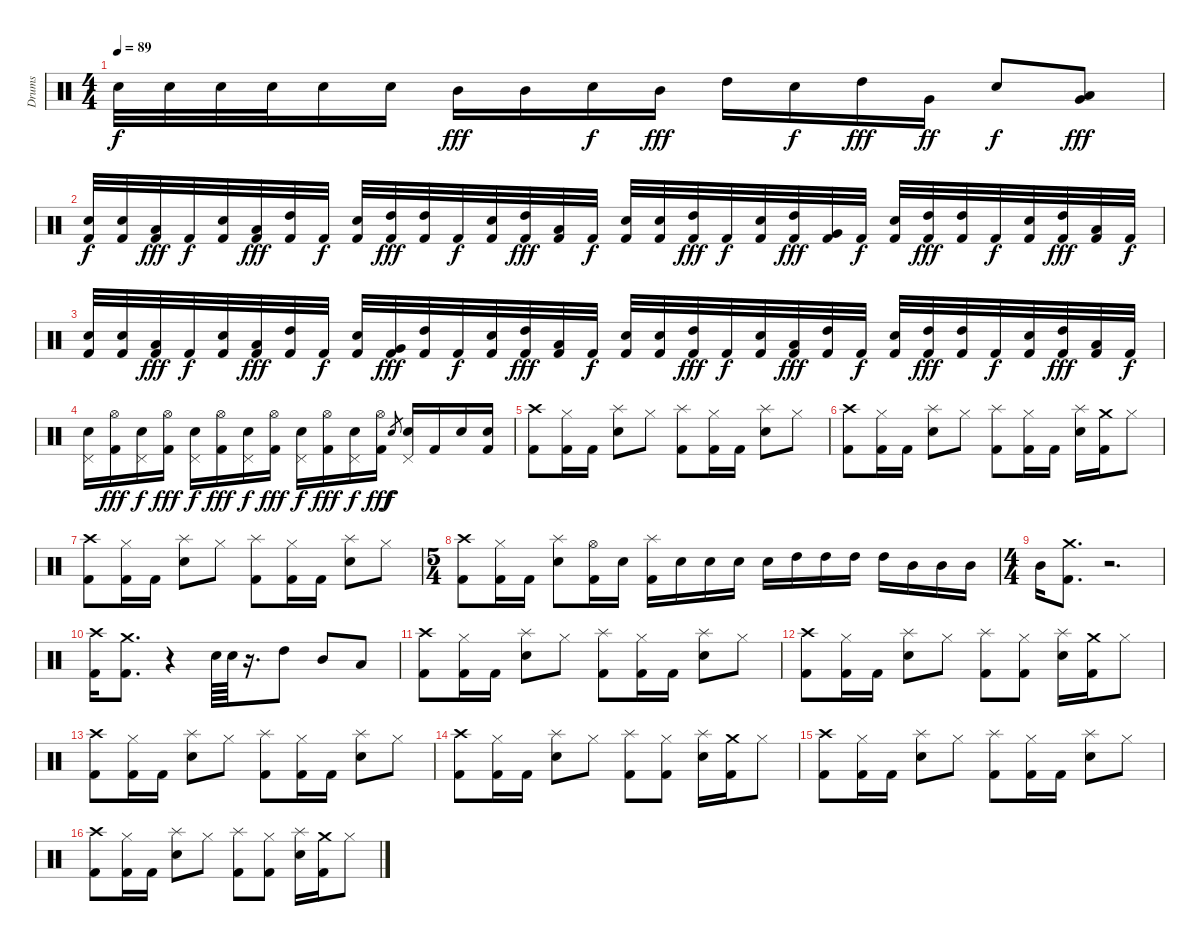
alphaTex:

\track ("Drums" "Drums") {instrument percussion}
\staff {score}
\articulation defaults
\ts (4 4)
\tempo 89
\clef neutral
\ks c "Snare (hit) 2".32{dy f} "Snare (hit) 2".32 "Snare (hit) 2".32 "Snare (hit) 2".32 "Snare (hit) 2".16 "Snare (hit) 2".16 "Mid Tom (hit)".16{dy fff} "Mid Tom (hit)".16 "Snare (hit) 2".16{dy f} "Mid Tom (hit)".16{dy fff} "High Tom (hit)".16 "Snare (hit) 2".16{dy f} "High Tom (hit)".16{dy fff} "Very Low Tom (hit)".16{dy ff} "Snare (hit) 2".8{dy f}
("Low Tom (hit)" "Very Low Tom (hit)").8{dy fff} |
("Kick (hit) 2" "Snare (hit) 2").32{dy f} ("Kick (hit) 2" "Snare (hit) 2").32 ("Kick (hit) 2" "Low Tom (hit)").32{dy fff} "Kick (hit) 2".32{dy f} ("Kick (hit) 2" "Snare (hit) 2").32 ("Kick (hit) 2" "Low Tom (hit)").32{dy fff} ("Kick (hit) 2" "High Tom (hit)").32 "Kick (hit) 2".32{dy f} ("Kick (hit) 2" "Snare (hit) 2").32 ("Kick (hit) 2" "High Tom (hit)").32{dy fff} ("Kick (hit) 2" "High Tom (hit)").32 "Kick (hit) 2".32{dy f} ("Kick (hit) 2" "Snare (hit) 2").32 ("Kick (hit) 2" "High Tom (hit)").32{dy fff} ("Kick (hit) 2" "Low Tom (hit)").32 "Kick (hit) 2".32{dy f} ("Kick (hit) 2" "Snare (hit) 2").32 ("Kick (hit) 2" "Snare (hit) 2").32 ("Kick (hit) 2" "High Tom (hit)").32{dy fff} "Kick (hit) 2".32{dy f} ("Kick (hit) 2" "Snare (hit) 2").32 ("Kick (hit) 2" "High Tom (hit)").32{dy fff} ("Kick (hit) 2" "Very Low Tom (hit)").32 "Kick (hit) 2".32{dy f} ("Kick (hit) 2" "Snare (hit) 2").32 ("Kick (hit) 2" "High Tom (hit)").32{dy fff} ("Kick (hit) 2" "High Tom (hit)").32 "Kick (hit) 2".32{dy f} ("Kick (hit) 2" "Snare (hit) 2").32 ("Kick (hit) 2" "High Tom (hit)").32{dy fff} ("Kick (hit) 2" "Low Tom (hit)").32 "Kick (hit) 2".32{dy f} |
("Kick (hit) 2" "Snare (hit) 2").32 ("Kick (hit) 2" "Snare (hit) 2").32 ("Kick (hit) 2" "Low Tom (hit)").32{dy fff} "Kick (hit) 2".32{dy f} ("Kick (hit) 2" "Snare (hit) 2").32 ("Kick (hit) 2" "Low Tom (hit)").32{dy fff} ("Kick (hit) 2" "High Tom (hit)").32 "Kick (hit) 2".32{dy f} ("Kick (hit) 2" "Snare (hit) 2").32 ("Kick (hit) 2" "Very Low Tom (hit)").32{dy fff} ("Kick (hit) 2" "High Tom (hit)").32 "Kick (hit) 2".32{dy f} ("Kick (hit) 2" "Snare (hit) 2").32 ("Kick (hit) 2" "High Tom (hit)").32{dy fff} ("Kick (hit) 2" "Low Tom (hit)").32 "Kick (hit) 2".32{dy f} ("Kick (hit) 2" "Snare (hit) 2").32 ("Kick (hit) 2" "Snare (hit) 2").32 ("Kick (hit) 2" "High Tom (hit)").32{dy fff} "Kick (hit) 2".32{dy f} ("Kick (hit) 2" "Snare (hit) 2").32 ("Kick (hit) 2" "Low Tom (hit)").32{dy fff} ("Kick (hit) 2" "High Tom (hit)").32 "Kick (hit) 2".32{dy f} ("Kick (hit) 2" "Snare (hit) 2").32 ("Kick (hit) 2" "High Tom (hit)").32{dy fff} ("Kick (hit) 2" "High Tom (hit)").32 "Kick (hit) 2".32{dy f} ("Kick (hit) 2" "Snare (hit) 2").32 ("Kick (hit) 2" "High Tom (hit)").32{dy fff} ("Kick (hit) 2" "Low Tom (hit)").32 "Kick (hit) 2".32{dy f} |
("Snare (hit) 2" "Pedal Hi-Hat (hit)").16 ("Kick (hit) 2" "Hi-Hat (open)").16{dy fff} ("Snare (hit) 2" "Pedal Hi-Hat (hit)").16{dy f} ("Kick (hit) 2" "Hi-Hat (open)").16{dy fff} ("Snare (hit) 2" "Pedal Hi-Hat (hit)").16{dy f} ("Kick (hit) 2" "Hi-Hat (open)").16{dy fff} ("Snare (hit) 2" "Pedal Hi-Hat (hit)").16{dy f} ("Kick (hit) 2" "Hi-Hat (open)").16{dy fff} ("Snare (hit) 2" "Pedal Hi-Hat (hit)").16{dy f} ("Kick (hit) 2" "Hi-Hat (open)").16{dy fff} ("Snare (hit) 2" "Pedal Hi-Hat (hit)").16{dy f} ("Kick (hit) 2" "Hi-Hat (open)").16{dy fff} "Snare (hit) 2".8{gr dy f} ("Snare (hit) 2" "Pedal Hi-Hat (hit)").16 "Kick (hit) 2".16 "Snare (hit) 2".16 ("Kick (hit) 2" "Snare (hit) 2").16 |
("Kick (hit) 2" "Crash high (hit)").8 ("Kick (hit) 2" "Hi-Hat (closed)").16 "Kick (hit) 2".16 ("Snare (hit) 2" "Splash (hit)").8 "Hi-Hat (closed)".8 ("Kick (hit) 2" "Splash (hit)").8 ("Kick (hit) 2" "Hi-Hat (closed)").16 "Kick (hit) 2".16 ("Snare (hit) 2" "Splash (hit)").8 "Hi-Hat (closed)".8 |
("Kick (hit) 2" "Crash high (hit)").8 ("Kick (hit) 2" "Hi-Hat (closed)").16 "Kick (hit) 2".16 ("Snare (hit) 2" "Splash (hit)").8 "Hi-Hat (closed)".8 ("Kick (hit) 2" "Splash (hit)").8 ("Kick (hit) 2" "Hi-Hat (closed)").16 "Kick (hit) 2".16 ("Snare (hit) 2" "Splash (hit)").16 ("Kick (hit) 2" "Crash medium (hit)").16 "Hi-Hat (closed)".8 |
("Kick (hit) 2" "Crash high (hit)").8 ("Kick (hit) 2" "Hi-Hat (closed)").16 "Kick (hit) 2".16 ("Snare (hit) 2" "Splash (hit)").8 "Hi-Hat (closed)".8 ("Kick (hit) 2" "Splash (hit)").8 ("Kick (hit) 2" "Hi-Hat (closed)").16 "Kick (hit) 2".16 ("Snare (hit) 2" "Splash (hit)").8 "Hi-Hat (closed)".8 |
\ts (5 4)
("Kick (hit) 2" "Crash high (hit)").8 ("Kick (hit) 2" "Hi-Hat (closed)").16 "Kick (hit) 2".16 ("Snare (hit) 2" "Splash (hit)").8 ("Kick (hit) 2" "Hi-Hat (open)").16 "Snare (hit) 2".16 ("Kick (hit) 2" "Splash (hit)").16 "Snare (hit) 2".16 "Snare (hit) 2".16 "Snare (hit) 2".16 "Snare (hit) 2".16 "High Tom (hit)".16 "High Tom (hit)".16 "High Tom (hit)".16 "High Tom (hit)".16 "Mid Tom (hit)".16 "Mid Tom (hit)".16 "Mid Tom (hit)".16 |
\ts (4 4)
"Mid Tom (hit)".16 ("Kick (hit) 2" "Crash medium (hit)").8{d} r.2{d} |
("Kick (hit) 2" "Crash high (hit)").16 ("Kick (hit) 2" "Crash medium (hit)").8{d} r.4 "Snare (hit) 2".64 "Snare (hit) 2".64 r.16{d} "High Tom (hit)".8 "Mid Tom (hit)".8 "Low Tom (hit)".8 |
("Kick (hit) 2" "Crash high (hit)").8 ("Kick (hit) 2" "Hi-Hat (closed)").16 "Kick (hit) 2".16 ("Snare (hit) 2" "Splash (hit)").8 "Hi-Hat (closed)".8 ("Kick (hit) 2" "Splash (hit)").8 ("Kick (hit) 2" "Hi-Hat (closed)").16 "Kick (hit) 2".16 ("Snare (hit) 2" "Splash (hit)").8 "Hi-Hat (closed)".8 |
("Kick (hit) 2" "Crash high (hit)").8 ("Kick (hit) 2" "Hi-Hat (closed)").16 "Kick (hit) 2".16 ("Snare (hit) 2" "Splash (hit)").8 "Hi-Hat (closed)".8 ("Kick (hit) 2" "Splash (hit)").8 ("Kick (hit) 2" "Hi-Hat (closed)").8 ("Snare (hit) 2" "Splash (hit)").16 ("Kick (hit) 2" "Crash medium (hit)").16 "Hi-Hat (closed)".8 |
("Kick (hit) 2" "Crash high (hit)").8 ("Kick (hit) 2" "Hi-Hat (closed)").16 "Kick (hit) 2".16 ("Snare (hit) 2" "Splash (hit)").8 "Hi-Hat (closed)".8 ("Kick (hit) 2" "Splash (hit)").8 ("Kick (hit) 2" "Hi-Hat (closed)").16 "Kick (hit) 2".16 ("Snare (hit) 2" "Splash (hit)").8 "Hi-Hat (closed)".8 |
("Kick (hit) 2" "Crash high (hit)").8 ("Kick (hit) 2" "Hi-Hat (closed)").16 "Kick (hit) 2".16 ("Snare (hit) 2" "Splash (hit)").8 "Hi-Hat (closed)".8 ("Kick (hit) 2" "Splash (hit)").8 ("Kick (hit) 2" "Hi-Hat (closed)").8 ("Snare (hit) 2" "Splash (hit)").16 ("Kick (hit) 2" "Crash medium (hit)").16 "Hi-Hat (closed)".8 |
("Kick (hit) 2" "Crash high (hit)").8 ("Kick (hit) 2" "Hi-Hat (closed)").16 "Kick (hit) 2".16 ("Snare (hit) 2" "Splash (hit)").8 "Hi-Hat (closed)".8 ("Kick (hit) 2" "Splash (hit)").8 ("Kick (hit) 2" "Hi-Hat (closed)").16 "Kick (hit) 2".16 ("Snare (hit) 2" "Splash (hit)").8 "Hi-Hat (closed)".8 |
("Kick (hit) 2" "Crash high (hit)").8 ("Kick (hit) 2" "Hi-Hat (closed)").16 "Kick (hit) 2".16 ("Snare (hit) 2" "Splash (hit)").8 "Hi-Hat (closed)".8 ("Kick (hit) 2" "Splash (hit)").8 ("Kick (hit) 2" "Hi-Hat (closed)").8 ("Snare (hit) 2" "Splash (hit)").16 ("Kick (hit) 2" "Crash medium (hit)").16 "Hi-Hat (closed)".8
